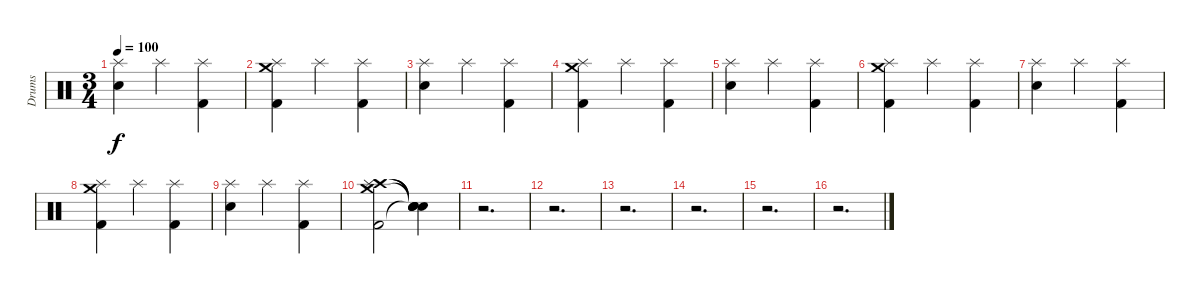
\track ("Drums" "Drums") {instrument percussion}
\staff {score}
\articulation defaults
\ts (3 4)
\tempo 100
\clef neutral
\ks c
("Splash (hit)" "Electric Snare (hit)").4{dy f} "Splash (hit)".4 ("Splash (hit)" "Kick (hit) 2").4 |
("Splash (hit)" "Crash medium (hit)" "Kick (hit) 2").4 "Splash (hit)".4 ("Splash (hit)" "Kick (hit) 2").4 |
("Splash (hit)" "Electric Snare (hit)").4 "Splash (hit)".4 ("Splash (hit)" "Kick (hit) 2").4 |
("Splash (hit)" "Crash medium (hit)" "Kick (hit) 2").4 "Splash (hit)".4 ("Splash (hit)" "Kick (hit) 2").4 |
("Splash (hit)" "Electric Snare (hit)").4 "Splash (hit)".4 ("Splash (hit)" "Kick (hit) 2").4 |
("Splash (hit)" "Crash medium (hit)" "Kick (hit) 2").4 "Splash (hit)".4 ("Splash (hit)" "Kick (hit) 2").4 |
("Splash (hit)" "Electric Snare (hit)").4 "Splash (hit)".4 ("Splash (hit)" "Kick (hit) 2").4 |
("Splash (hit)" "Crash medium (hit)" "Kick (hit) 2").4 "Splash (hit)".4 ("Splash (hit)" "Kick (hit) 2").4 |
("Splash (hit)" "Electric Snare (hit)").4 "Splash (hit)".4 ("Splash (hit)" "Kick (hit) 2").4 |
("Crash high (hit)" "Splash (hit)" "Crash medium (hit)" "Kick (hit) 2").2 ("Snare (hit)"{t} "Snare (hit)"{t} "Snare (hit)"{t} "Snare (hit)"{t}).4 |
r.2{d} |
r.2{d} |
r.2{d} |
r.2{d} |
r.2{d} |
r.2{d}
